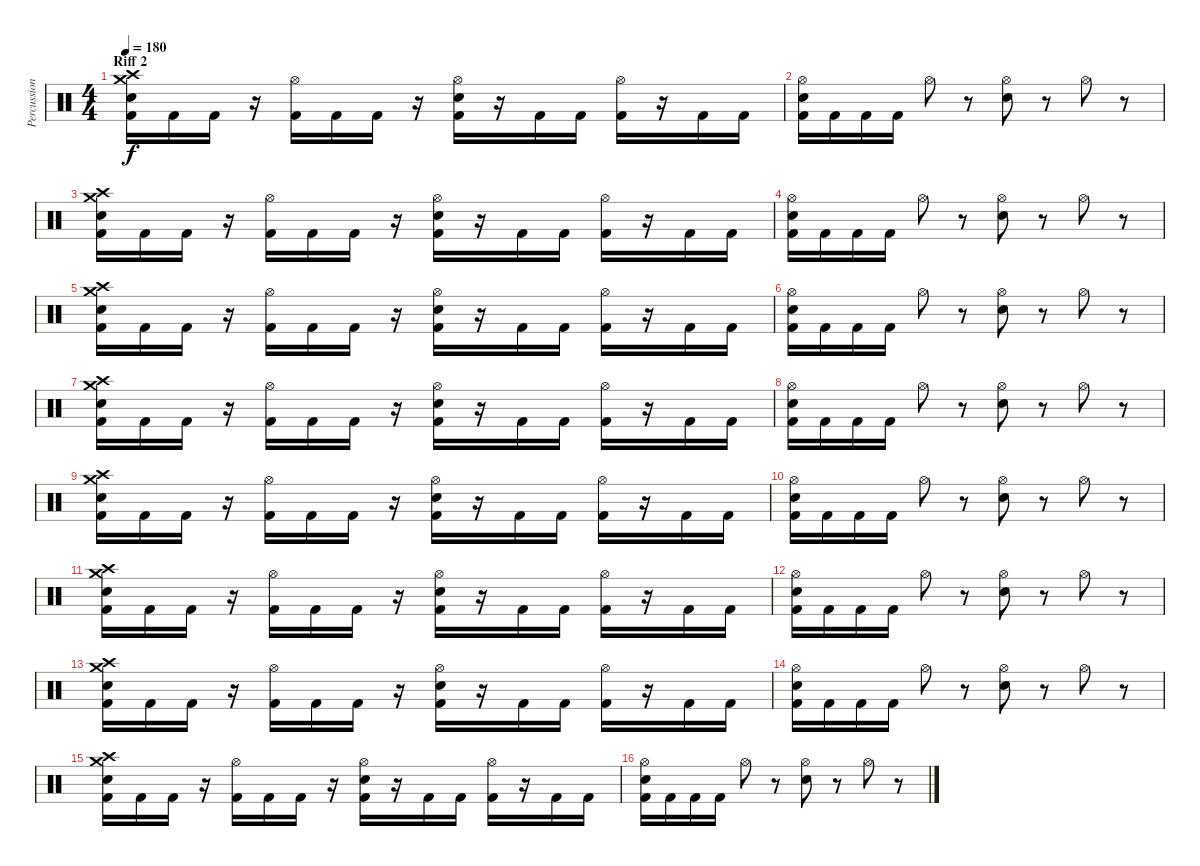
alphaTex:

\track ("Percussion" "Percussion") {instrument percussion}
\staff {score}
\articulation defaults
\ts (4 4)
\section ("" "Riff 2")
\tempo 180
\clef neutral
\ks c
("Crash medium (hit)" "Crash high (hit)" "Electric Snare (hit)" "Kick (hit) 2").16{dy f} "Kick (hit) 2".16 "Kick (hit) 2".16 r.16 ("Hi-Hat (open)" "Kick (hit) 2").16 "Kick (hit) 2".16 "Kick (hit) 2".16 r.16 ("Hi-Hat (open)" "Electric Snare (hit)" "Kick (hit) 2").16 r.16 "Kick (hit) 2".16 "Kick (hit) 2".16 ("Hi-Hat (open)" "Kick (hit) 2").16 r.16 "Kick (hit) 2".16 "Kick (hit) 2".16 |
("Hi-Hat (open)" "Electric Snare (hit)" "Kick (hit) 2").16 "Kick (hit) 2".16 "Kick (hit) 2".16 "Kick (hit) 2".16 "Hi-Hat (open)".8 r.8 ("Hi-Hat (open)" "Electric Snare (hit)").8 r.8 "Hi-Hat (open)".8 r.8 |
("Crash medium (hit)" "Crash high (hit)" "Electric Snare (hit)" "Kick (hit) 2").16 "Kick (hit) 2".16 "Kick (hit) 2".16 r.16 ("Hi-Hat (open)" "Kick (hit) 2").16 "Kick (hit) 2".16 "Kick (hit) 2".16 r.16 ("Hi-Hat (open)" "Electric Snare (hit)" "Kick (hit) 2").16 r.16 "Kick (hit) 2".16 "Kick (hit) 2".16 ("Hi-Hat (open)" "Kick (hit) 2").16 r.16 "Kick (hit) 2".16 "Kick (hit) 2".16 |
("Hi-Hat (open)" "Electric Snare (hit)" "Kick (hit) 2").16 "Kick (hit) 2".16 "Kick (hit) 2".16 "Kick (hit) 2".16 "Hi-Hat (open)".8 r.8 ("Hi-Hat (open)" "Electric Snare (hit)").8 r.8 "Hi-Hat (open)".8 r.8 |
("Crash medium (hit)" "Crash high (hit)" "Electric Snare (hit)" "Kick (hit) 2").16 "Kick (hit) 2".16 "Kick (hit) 2".16 r.16 ("Hi-Hat (open)" "Kick (hit) 2").16 "Kick (hit) 2".16 "Kick (hit) 2".16 r.16 ("Hi-Hat (open)" "Electric Snare (hit)" "Kick (hit) 2").16 r.16 "Kick (hit) 2".16 "Kick (hit) 2".16 ("Hi-Hat (open)" "Kick (hit) 2").16 r.16 "Kick (hit) 2".16 "Kick (hit) 2".16 |
("Hi-Hat (open)" "Electric Snare (hit)" "Kick (hit) 2").16 "Kick (hit) 2".16 "Kick (hit) 2".16 "Kick (hit) 2".16 "Hi-Hat (open)".8 r.8 ("Hi-Hat (open)" "Electric Snare (hit)").8 r.8 "Hi-Hat (open)".8 r.8 |
("Crash medium (hit)" "Crash high (hit)" "Electric Snare (hit)" "Kick (hit) 2").16 "Kick (hit) 2".16 "Kick (hit) 2".16 r.16 ("Hi-Hat (open)" "Kick (hit) 2").16 "Kick (hit) 2".16 "Kick (hit) 2".16 r.16 ("Hi-Hat (open)" "Electric Snare (hit)" "Kick (hit) 2").16 r.16 "Kick (hit) 2".16 "Kick (hit) 2".16 ("Hi-Hat (open)" "Kick (hit) 2").16 r.16 "Kick (hit) 2".16 "Kick (hit) 2".16 |
("Hi-Hat (open)" "Electric Snare (hit)" "Kick (hit) 2").16 "Kick (hit) 2".16 "Kick (hit) 2".16 "Kick (hit) 2".16 "Hi-Hat (open)".8 r.8 ("Hi-Hat (open)" "Electric Snare (hit)").8 r.8 "Hi-Hat (open)".8 r.8 |
("Crash medium (hit)" "Crash high (hit)" "Electric Snare (hit)" "Kick (hit) 2").16 "Kick (hit) 2".16 "Kick (hit) 2".16 r.16 ("Hi-Hat (open)" "Kick (hit) 2").16 "Kick (hit) 2".16 "Kick (hit) 2".16 r.16 ("Hi-Hat (open)" "Electric Snare (hit)" "Kick (hit) 2").16 r.16 "Kick (hit) 2".16 "Kick (hit) 2".16 ("Hi-Hat (open)" "Kick (hit) 2").16 r.16 "Kick (hit) 2".16 "Kick (hit) 2".16 |
("Hi-Hat (open)" "Electric Snare (hit)" "Kick (hit) 2").16 "Kick (hit) 2".16 "Kick (hit) 2".16 "Kick (hit) 2".16 "Hi-Hat (open)".8 r.8 ("Hi-Hat (open)" "Electric Snare (hit)").8 r.8 "Hi-Hat (open)".8 r.8 |
("Crash medium (hit)" "Crash high (hit)" "Electric Snare (hit)" "Kick (hit) 2").16 "Kick (hit) 2".16 "Kick (hit) 2".16 r.16 ("Hi-Hat (open)" "Kick (hit) 2").16 "Kick (hit) 2".16 "Kick (hit) 2".16 r.16 ("Hi-Hat (open)" "Electric Snare (hit)" "Kick (hit) 2").16 r.16 "Kick (hit) 2".16 "Kick (hit) 2".16 ("Hi-Hat (open)" "Kick (hit) 2").16 r.16 "Kick (hit) 2".16 "Kick (hit) 2".16 |
("Hi-Hat (open)" "Electric Snare (hit)" "Kick (hit) 2").16 "Kick (hit) 2".16 "Kick (hit) 2".16 "Kick (hit) 2".16 "Hi-Hat (open)".8 r.8 ("Hi-Hat (open)" "Electric Snare (hit)").8 r.8 "Hi-Hat (open)".8 r.8 |
("Crash medium (hit)" "Crash high (hit)" "Electric Snare (hit)" "Kick (hit) 2").16 "Kick (hit) 2".16 "Kick (hit) 2".16 r.16 ("Hi-Hat (open)" "Kick (hit) 2").16 "Kick (hit) 2".16 "Kick (hit) 2".16 r.16 ("Hi-Hat (open)" "Electric Snare (hit)" "Kick (hit) 2").16 r.16 "Kick (hit) 2".16 "Kick (hit) 2".16 ("Hi-Hat (open)" "Kick (hit) 2").16 r.16 "Kick (hit) 2".16 "Kick (hit) 2".16 |
("Hi-Hat (open)" "Electric Snare (hit)" "Kick (hit) 2").16 "Kick (hit) 2".16 "Kick (hit) 2".16 "Kick (hit) 2".16 "Hi-Hat (open)".8 r.8 ("Hi-Hat (open)" "Electric Snare (hit)").8 r.8 "Hi-Hat (open)".8 r.8 |
("Crash medium (hit)" "Crash high (hit)" "Electric Snare (hit)" "Kick (hit) 2").16 "Kick (hit) 2".16 "Kick (hit) 2".16 r.16 ("Hi-Hat (open)" "Kick (hit) 2").16 "Kick (hit) 2".16 "Kick (hit) 2".16 r.16 ("Hi-Hat (open)" "Electric Snare (hit)" "Kick (hit) 2").16 r.16 "Kick (hit) 2".16 "Kick (hit) 2".16 ("Hi-Hat (open)" "Kick (hit) 2").16 r.16 "Kick (hit) 2".16 "Kick (hit) 2".16 |
("Hi-Hat (open)" "Electric Snare (hit)" "Kick (hit) 2").16 "Kick (hit) 2".16 "Kick (hit) 2".16 "Kick (hit) 2".16 "Hi-Hat (open)".8 r.8 ("Hi-Hat (open)" "Electric Snare (hit)").8 r.8 "Hi-Hat (open)".8 r.8
